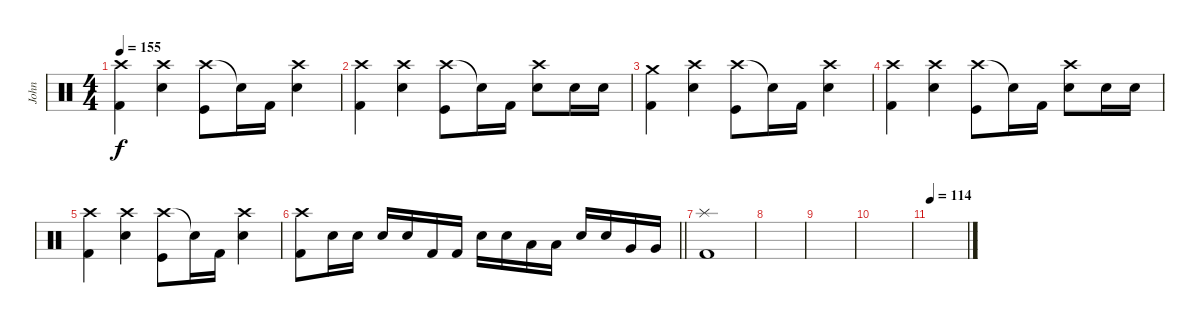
\track ("John" "John") {instrument percussion}
\staff {score}
\articulation defaults
\ts (4 4)
\tempo 155
\clef neutral
\ks c
("Crash high (hit)" "Kick (hit) 2").4{dy f} ("Crash high (hit)" "Snare (hit) 2").4 ("Crash high (hit)" "Kick (hit)").8 "Snare (hit)"{t}.16 "Kick (hit) 2".16 ("Crash high (hit)" "Snare (hit) 2").4 |
("Crash high (hit)" "Kick (hit) 2").4 ("Crash high (hit)" "Snare (hit) 2").4 ("Crash high (hit)" "Kick (hit)").8 "Snare (hit)"{t}.16 "Kick (hit) 2".16 ("Crash high (hit)" "Snare (hit) 2").8 "Snare (hit) 2".16 "Snare (hit) 2".16 |
("Crash medium (hit)" "Kick (hit) 2").4 ("Crash high (hit)" "Snare (hit) 2").4 ("Crash high (hit)" "Kick (hit)").8 "Snare (hit)"{t}.16 "Kick (hit) 2".16 ("Crash high (hit)" "Snare (hit) 2").4 |
("Crash high (hit)" "Kick (hit) 2").4 ("Crash high (hit)" "Snare (hit) 2").4 ("Crash high (hit)" "Kick (hit)").8 "Snare (hit)"{t}.16 "Kick (hit) 2".16 ("Crash high (hit)" "Snare (hit) 2").8 "Snare (hit) 2".16 "Snare (hit) 2".16 |
("Crash high (hit)" "Kick (hit) 2").4 ("Crash high (hit)" "Snare (hit) 2").4 ("Crash high (hit)" "Kick (hit)").8 "Snare (hit)"{t}.16 "Kick (hit) 2".16 ("Crash high (hit)" "Snare (hit) 2").4 |
\barLineRight lightlight
("Crash high (hit)" "Kick (hit) 2").8 "Snare (hit) 2".16 "Snare (hit) 2".16 "Snare (hit) 2".16 "Snare (hit) 2".16 "Kick (hit) 2".16 "Kick (hit) 2".16 "Snare (hit) 2".16 "Snare (hit) 2".16 "Low Tom (hit)".16 "Low Tom (hit)".16 "Snare (hit) 2".16 "Snare (hit) 2".16 "Very Low Tom (hit)".16 "Very Low Tom (hit)".16 |
("Splash (hit)" "Kick (hit) 2").1 |
|
|
|
\tempo 114
